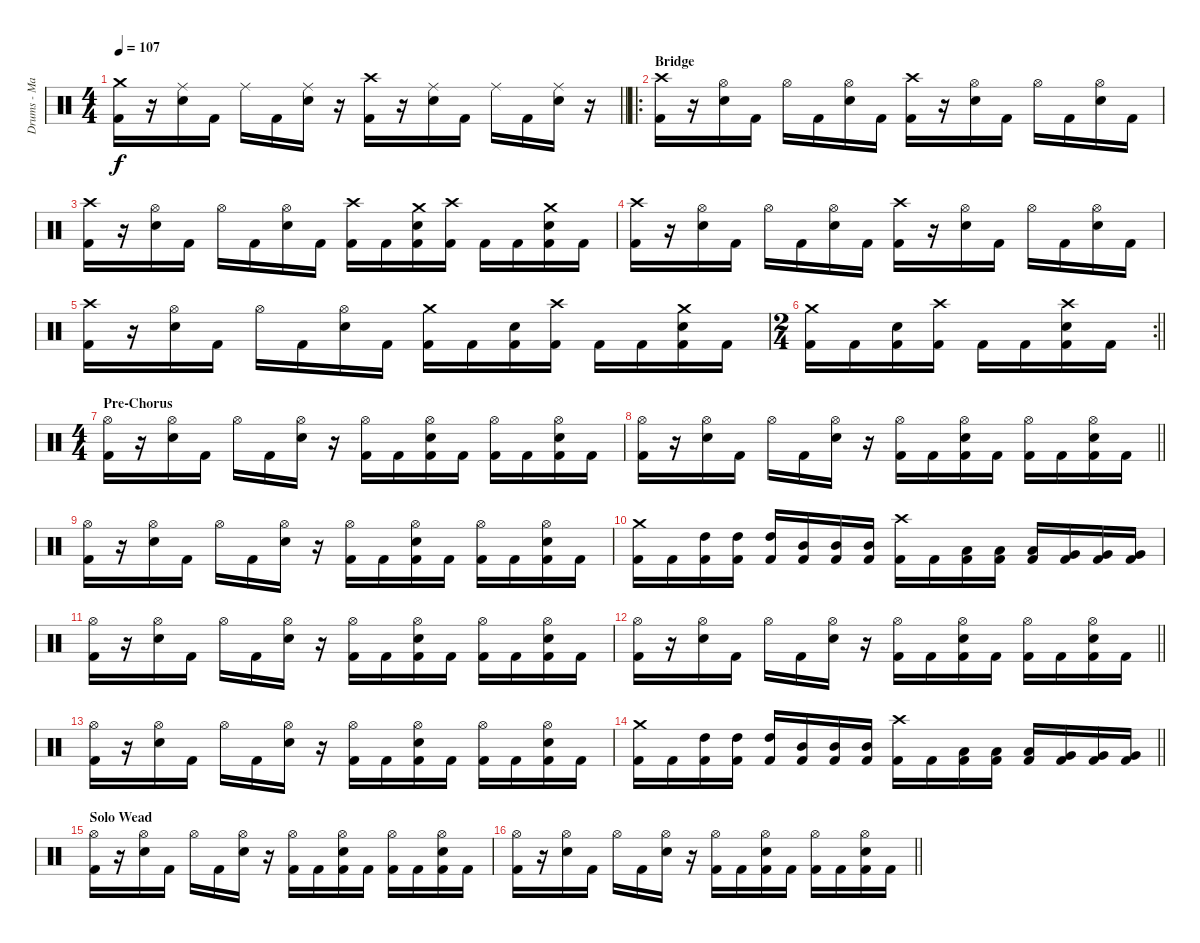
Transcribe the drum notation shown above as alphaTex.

\track ("Drums - Matt Thompson" "Drums - Ma") {instrument percussion}
\staff {score}
\articulation defaults
\ts (4 4)
\tempo 107
\clef neutral
\barLineRight lightlight
\ks c
("Crash medium (hit)" "Kick (hit) 2").16{dy f} r.16 ("Ride (middle)" "Snare (hit) 2").16 "Kick (hit) 2".16 "Ride (middle)".16 "Kick (hit) 2".16 ("Ride (middle)" "Snare (hit) 2").16 r.16 ("Crash high (hit)" "Kick (hit) 2").16 r.16 ("Ride (middle)" "Snare (hit) 2").16 "Kick (hit) 2".16 "Ride (middle)".16 "Kick (hit) 2".16 ("Ride (middle)" "Snare (hit) 2").16 r.16 |
\ro
\section ("" "Bridge")
("Crash high (hit)" "Kick (hit) 2").16 r.16 ("Hi-Hat (open)" "Snare (hit) 2").16 "Kick (hit) 2".16 "Hi-Hat (open)".16 "Kick (hit) 2".16 ("Hi-Hat (open)" "Snare (hit) 2").16 "Kick (hit) 2".16 ("Crash high (hit)" "Kick (hit) 2").16 r.16 ("Hi-Hat (open)" "Snare (hit) 2").16 "Kick (hit) 2".16 "Hi-Hat (open)".16 "Kick (hit) 2".16 ("Hi-Hat (open)" "Snare (hit) 2").16 "Kick (hit) 2".16 |
("Crash high (hit)" "Kick (hit) 2").16 r.16 ("Hi-Hat (open)" "Snare (hit) 2").16 "Kick (hit) 2".16 "Hi-Hat (open)".16 "Kick (hit) 2".16 ("Hi-Hat (open)" "Snare (hit) 2").16 "Kick (hit) 2".16 ("Crash high (hit)" "Kick (hit) 2").16 "Kick (hit) 2".16 ("Crash medium (hit)" "Snare (hit) 2" "Kick (hit) 2").16 ("Crash high (hit)" "Kick (hit) 2").16 "Kick (hit) 2".16 "Kick (hit) 2".16 ("Crash medium (hit)" "Snare (hit) 2" "Kick (hit) 2").16 "Kick (hit) 2".16 |
("Crash high (hit)" "Kick (hit) 2").16 r.16 ("Hi-Hat (open)" "Snare (hit) 2").16 "Kick (hit) 2".16 "Hi-Hat (open)".16 "Kick (hit) 2".16 ("Hi-Hat (open)" "Snare (hit) 2").16 "Kick (hit) 2".16 ("Crash high (hit)" "Kick (hit) 2").16 r.16 ("Hi-Hat (open)" "Snare (hit) 2").16 "Kick (hit) 2".16 "Hi-Hat (open)".16 "Kick (hit) 2".16 ("Hi-Hat (open)" "Snare (hit) 2").16 "Kick (hit) 2".16 |
("Crash high (hit)" "Kick (hit) 2").16 r.16 ("Hi-Hat (open)" "Snare (hit) 2").16 "Kick (hit) 2".16 "Hi-Hat (open)".16 "Kick (hit) 2".16 ("Hi-Hat (open)" "Snare (hit) 2").16 "Kick (hit) 2".16 ("Crash medium (hit)" "Kick (hit) 2").16 "Kick (hit) 2".16 ("Snare (hit) 2" "Kick (hit) 2").16 ("Crash high (hit)" "Kick (hit) 2").16 "Kick (hit) 2".16 "Kick (hit) 2".16 ("Crash medium (hit)" "Snare (hit) 2" "Kick (hit) 2").16 "Kick (hit) 2".16 |
\rc 2
\ts (2 4)
\barLineRight lightlight
("Crash medium (hit)" "Kick (hit) 2").16 "Kick (hit) 2".16 ("Snare (hit) 2" "Kick (hit) 2").16 ("Crash high (hit)" "Kick (hit) 2").16 "Kick (hit) 2".16 "Kick (hit) 2".16 ("Crash high (hit)" "Snare (hit) 2" "Kick (hit) 2").16 "Kick (hit) 2".16 |
\ts (4 4)
\section ("" "Pre-Chorus")
("Hi-Hat (open)" "Kick (hit) 2").16 r.16 ("Hi-Hat (open)" "Snare (hit) 2").16 "Kick (hit) 2".16 "Hi-Hat (open)".16 "Kick (hit) 2".16 ("Hi-Hat (open)" "Snare (hit) 2").16 r.16 ("Hi-Hat (open)" "Kick (hit) 2").16 "Kick (hit) 2".16 ("Hi-Hat (open)" "Snare (hit) 2" "Kick (hit) 2").16 "Kick (hit) 2".16 ("Hi-Hat (open)" "Kick (hit) 2").16 "Kick (hit) 2".16 ("Hi-Hat (open)" "Snare (hit) 2" "Kick (hit) 2").16 "Kick (hit) 2".16 |
\barLineRight lightlight
("Hi-Hat (open)" "Kick (hit) 2").16 r.16 ("Hi-Hat (open)" "Snare (hit) 2").16 "Kick (hit) 2".16 "Hi-Hat (open)".16 "Kick (hit) 2".16 ("Hi-Hat (open)" "Snare (hit) 2").16 r.16 ("Hi-Hat (open)" "Kick (hit) 2").16 "Kick (hit) 2".16 ("Hi-Hat (open)" "Snare (hit) 2" "Kick (hit) 2").16 "Kick (hit) 2".16 ("Hi-Hat (open)" "Kick (hit) 2").16 "Kick (hit) 2".16 ("Hi-Hat (open)" "Snare (hit) 2" "Kick (hit) 2").16 "Kick (hit) 2".16 |
("Hi-Hat (open)" "Kick (hit) 2").16 r.16 ("Hi-Hat (open)" "Snare (hit) 2").16 "Kick (hit) 2".16 "Hi-Hat (open)".16 "Kick (hit) 2".16 ("Hi-Hat (open)" "Snare (hit) 2").16 r.16 ("Hi-Hat (open)" "Kick (hit) 2").16 "Kick (hit) 2".16 ("Hi-Hat (open)" "Snare (hit) 2" "Kick (hit) 2").16 "Kick (hit) 2".16 ("Hi-Hat (open)" "Kick (hit) 2").16 "Kick (hit) 2".16 ("Hi-Hat (open)" "Snare (hit) 2" "Kick (hit) 2").16 "Kick (hit) 2".16 |
("Crash medium (hit)" "Kick (hit) 2").16 "Kick (hit) 2".16 ("High Tom (hit)" "Kick (hit) 2").16 ("High Tom (hit)" "Kick (hit) 2").16 ("High Tom (hit)" "Kick (hit) 2").16 ("Mid Tom (hit)" "Kick (hit) 2").16 ("Mid Tom (hit)" "Kick (hit) 2").16 ("Mid Tom (hit)" "Kick (hit) 2").16 ("Crash high (hit)" "Kick (hit) 2").16 "Kick (hit) 2".16 ("Low Tom (hit)" "Kick (hit) 2").16 ("Low Tom (hit)" "Kick (hit) 2").16 ("Low Tom (hit)" "Kick (hit) 2").16 ("Very Low Tom (hit)" "Kick (hit) 2").16 ("Very Low Tom (hit)" "Kick (hit) 2").16 ("Very Low Tom (hit)" "Kick (hit) 2").16 |
("Hi-Hat (open)" "Kick (hit) 2").16 r.16 ("Hi-Hat (open)" "Snare (hit) 2").16 "Kick (hit) 2".16 "Hi-Hat (open)".16 "Kick (hit) 2".16 ("Hi-Hat (open)" "Snare (hit) 2").16 r.16 ("Hi-Hat (open)" "Kick (hit) 2").16 "Kick (hit) 2".16 ("Hi-Hat (open)" "Snare (hit) 2" "Kick (hit) 2").16 "Kick (hit) 2".16 ("Hi-Hat (open)" "Kick (hit) 2").16 "Kick (hit) 2".16 ("Hi-Hat (open)" "Snare (hit) 2" "Kick (hit) 2").16 "Kick (hit) 2".16 |
\barLineRight lightlight
("Hi-Hat (open)" "Kick (hit) 2").16 r.16 ("Hi-Hat (open)" "Snare (hit) 2").16 "Kick (hit) 2".16 "Hi-Hat (open)".16 "Kick (hit) 2".16 ("Hi-Hat (open)" "Snare (hit) 2").16 r.16 ("Hi-Hat (open)" "Kick (hit) 2").16 "Kick (hit) 2".16 ("Hi-Hat (open)" "Snare (hit) 2" "Kick (hit) 2").16 "Kick (hit) 2".16 ("Hi-Hat (open)" "Kick (hit) 2").16 "Kick (hit) 2".16 ("Hi-Hat (open)" "Snare (hit) 2" "Kick (hit) 2").16 "Kick (hit) 2".16 |
("Hi-Hat (open)" "Kick (hit) 2").16 r.16 ("Hi-Hat (open)" "Snare (hit) 2").16 "Kick (hit) 2".16 "Hi-Hat (open)".16 "Kick (hit) 2".16 ("Hi-Hat (open)" "Snare (hit) 2").16 r.16 ("Hi-Hat (open)" "Kick (hit) 2").16 "Kick (hit) 2".16 ("Hi-Hat (open)" "Snare (hit) 2" "Kick (hit) 2").16 "Kick (hit) 2".16 ("Hi-Hat (open)" "Kick (hit) 2").16 "Kick (hit) 2".16 ("Hi-Hat (open)" "Snare (hit) 2" "Kick (hit) 2").16 "Kick (hit) 2".16 |
\barLineRight lightlight
("Crash medium (hit)" "Kick (hit) 2").16 "Kick (hit) 2".16 ("High Tom (hit)" "Kick (hit) 2").16 ("High Tom (hit)" "Kick (hit) 2").16 ("High Tom (hit)" "Kick (hit) 2").16 ("Mid Tom (hit)" "Kick (hit) 2").16 ("Mid Tom (hit)" "Kick (hit) 2").16 ("Mid Tom (hit)" "Kick (hit) 2").16 ("Crash high (hit)" "Kick (hit) 2").16 "Kick (hit) 2".16 ("Low Tom (hit)" "Kick (hit) 2").16 ("Low Tom (hit)" "Kick (hit) 2").16 ("Low Tom (hit)" "Kick (hit) 2").16 ("Very Low Tom (hit)" "Kick (hit) 2").16 ("Very Low Tom (hit)" "Kick (hit) 2").16 ("Very Low Tom (hit)" "Kick (hit) 2").16 |
\section ("" "Solo Wead")
("Hi-Hat (open)" "Kick (hit) 2").16 r.16 ("Hi-Hat (open)" "Snare (hit) 2").16 "Kick (hit) 2".16 "Hi-Hat (open)".16 "Kick (hit) 2".16 ("Hi-Hat (open)" "Snare (hit) 2").16 r.16 ("Hi-Hat (open)" "Kick (hit) 2").16 "Kick (hit) 2".16 ("Hi-Hat (open)" "Snare (hit) 2" "Kick (hit) 2").16 "Kick (hit) 2".16 ("Hi-Hat (open)" "Kick (hit) 2").16 "Kick (hit) 2".16 ("Hi-Hat (open)" "Snare (hit) 2" "Kick (hit) 2").16 "Kick (hit) 2".16 |
\barLineRight lightlight
("Hi-Hat (open)" "Kick (hit) 2").16 r.16 ("Hi-Hat (open)" "Snare (hit) 2").16 "Kick (hit) 2".16 "Hi-Hat (open)".16 "Kick (hit) 2".16 ("Hi-Hat (open)" "Snare (hit) 2").16 r.16 ("Hi-Hat (open)" "Kick (hit) 2").16 "Kick (hit) 2".16 ("Hi-Hat (open)" "Snare (hit) 2" "Kick (hit) 2").16 "Kick (hit) 2".16 ("Hi-Hat (open)" "Kick (hit) 2").16 "Kick (hit) 2".16 ("Hi-Hat (open)" "Snare (hit) 2" "Kick (hit) 2").16 "Kick (hit) 2".16
